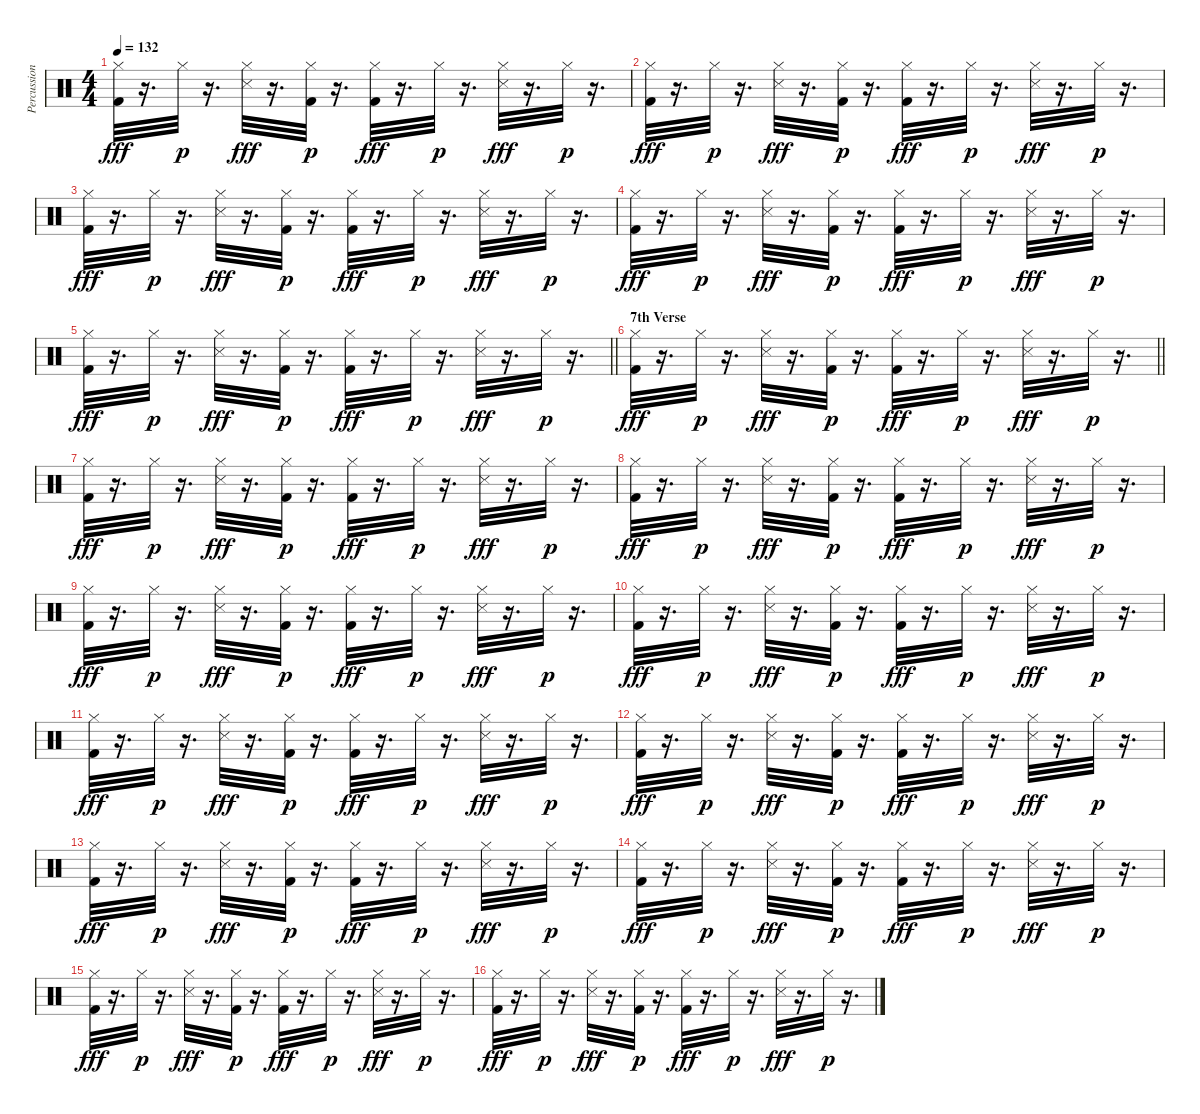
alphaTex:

\track ("Percussion" "Percussion") {instrument percussion}
\staff {score}
\articulation defaults
\ts (4 4)
\tempo 132
\clef neutral
\ks c
("Kick (hit) 2" "Hi-Hat (closed)").32{dy fff} r.16{d} "Hi-Hat (closed)".32{dy p} r.16{d} ("Hi-Hat (closed)" "Snare (side stick) 3").32{dy fff} r.16{d} ("Kick (hit) 2" "Hi-Hat (closed)").32{dy p} r.16{d} ("Kick (hit) 2" "Hi-Hat (closed)").32{dy fff} r.16{d} "Hi-Hat (closed)".32{dy p} r.16{d} ("Snare (side stick) 3" "Hi-Hat (closed)").32{dy fff} r.16{d} "Hi-Hat (closed)".32{dy p} r.16{d} |
("Kick (hit) 2" "Hi-Hat (closed)").32{dy fff} r.16{d} "Hi-Hat (closed)".32{dy p} r.16{d} ("Snare (side stick) 3" "Hi-Hat (closed)").32{dy fff} r.16{d} ("Kick (hit) 2" "Hi-Hat (closed)").32{dy p} r.16{d} ("Kick (hit) 2" "Hi-Hat (closed)").32{dy fff} r.16{d} "Hi-Hat (closed)".32{dy p} r.16{d} ("Hi-Hat (closed)" "Snare (side stick) 3").32{dy fff} r.16{d} "Hi-Hat (closed)".32{dy p} r.16{d} |
("Kick (hit) 2" "Hi-Hat (closed)").32{dy fff} r.16{d} "Hi-Hat (closed)".32{dy p} r.16{d} ("Hi-Hat (closed)" "Snare (side stick) 3").32{dy fff} r.16{d} ("Kick (hit) 2" "Hi-Hat (closed)").32{dy p} r.16{d} ("Kick (hit) 2" "Hi-Hat (closed)").32{dy fff} r.16{d} "Hi-Hat (closed)".32{dy p} r.16{d} ("Snare (side stick) 3" "Hi-Hat (closed)").32{dy fff} r.16{d} "Hi-Hat (closed)".32{dy p} r.16{d} |
("Kick (hit) 2" "Hi-Hat (closed)").32{dy fff} r.16{d} "Hi-Hat (closed)".32{dy p} r.16{d} ("Snare (side stick) 3" "Hi-Hat (closed)").32{dy fff} r.16{d} ("Kick (hit) 2" "Hi-Hat (closed)").32{dy p} r.16{d} ("Kick (hit) 2" "Hi-Hat (closed)").32{dy fff} r.16{d} "Hi-Hat (closed)".32{dy p} r.16{d} ("Hi-Hat (closed)" "Snare (side stick) 3").32{dy fff} r.16{d} "Hi-Hat (closed)".32{dy p} r.16{d} |
\barLineRight lightlight
("Kick (hit) 2" "Hi-Hat (closed)").32{dy fff} r.16{d} "Hi-Hat (closed)".32{dy p} r.16{d} ("Hi-Hat (closed)" "Snare (side stick) 3").32{dy fff} r.16{d} ("Kick (hit) 2" "Hi-Hat (closed)").32{dy p} r.16{d} ("Kick (hit) 2" "Hi-Hat (closed)").32{dy fff} r.16{d} "Hi-Hat (closed)".32{dy p} r.16{d} ("Snare (side stick) 3" "Hi-Hat (closed)").32{dy fff} r.16{d} "Hi-Hat (closed)".32{dy p} r.16{d} |
\section ("" "7th Verse")
\barLineRight lightlight
("Kick (hit) 2" "Hi-Hat (closed)").32{dy fff} r.16{d} "Hi-Hat (closed)".32{dy p} r.16{d} ("Snare (side stick) 3" "Hi-Hat (closed)").32{dy fff} r.16{d} ("Kick (hit) 2" "Hi-Hat (closed)").32{dy p} r.16{d} ("Kick (hit) 2" "Hi-Hat (closed)").32{dy fff} r.16{d} "Hi-Hat (closed)".32{dy p} r.16{d} ("Hi-Hat (closed)" "Snare (side stick) 3").32{dy fff} r.16{d} "Hi-Hat (closed)".32{dy p} r.16{d} |
("Kick (hit) 2" "Hi-Hat (closed)").32{dy fff} r.16{d} "Hi-Hat (closed)".32{dy p} r.16{d} ("Snare (side stick) 3" "Hi-Hat (closed)").32{dy fff} r.16{d} ("Kick (hit) 2" "Hi-Hat (closed)").32{dy p} r.16{d} ("Kick (hit) 2" "Hi-Hat (closed)").32{dy fff} r.16{d} "Hi-Hat (closed)".32{dy p} r.16{d} ("Snare (side stick) 3" "Hi-Hat (closed)").32{dy fff} r.16{d} "Hi-Hat (closed)".32{dy p} r.16{d} |
("Kick (hit) 2" "Hi-Hat (closed)").32{dy fff} r.16{d} "Hi-Hat (closed)".32{dy p} r.16{d} ("Snare (side stick) 3" "Hi-Hat (closed)").32{dy fff} r.16{d} ("Kick (hit) 2" "Hi-Hat (closed)").32{dy p} r.16{d} ("Kick (hit) 2" "Hi-Hat (closed)").32{dy fff} r.16{d} "Hi-Hat (closed)".32{dy p} r.16{d} ("Snare (side stick) 3" "Hi-Hat (closed)").32{dy fff} r.16{d} "Hi-Hat (closed)".32{dy p} r.16{d} |
("Kick (hit) 2" "Hi-Hat (closed)").32{dy fff} r.16{d} "Hi-Hat (closed)".32{dy p} r.16{d} ("Hi-Hat (closed)" "Snare (side stick) 3").32{dy fff} r.16{d} ("Kick (hit) 2" "Hi-Hat (closed)").32{dy p} r.16{d} ("Kick (hit) 2" "Hi-Hat (closed)").32{dy fff} r.16{d} "Hi-Hat (closed)".32{dy p} r.16{d} ("Snare (side stick) 3" "Hi-Hat (closed)").32{dy fff} r.16{d} "Hi-Hat (closed)".32{dy p} r.16{d} |
("Kick (hit) 2" "Hi-Hat (closed)").32{dy fff} r.16{d} "Hi-Hat (closed)".32{dy p} r.16{d} ("Hi-Hat (closed)" "Snare (side stick) 3").32{dy fff} r.16{d} ("Kick (hit) 2" "Hi-Hat (closed)").32{dy p} r.16{d} ("Kick (hit) 2" "Hi-Hat (closed)").32{dy fff} r.16{d} "Hi-Hat (closed)".32{dy p} r.16{d} ("Snare (side stick) 3" "Hi-Hat (closed)").32{dy fff} r.16{d} "Hi-Hat (closed)".32{dy p} r.16{d} |
("Kick (hit) 2" "Hi-Hat (closed)").32{dy fff} r.16{d} "Hi-Hat (closed)".32{dy p} r.16{d} ("Snare (side stick) 3" "Hi-Hat (closed)").32{dy fff} r.16{d} ("Kick (hit) 2" "Hi-Hat (closed)").32{dy p} r.16{d} ("Kick (hit) 2" "Hi-Hat (closed)").32{dy fff} r.16{d} "Hi-Hat (closed)".32{dy p} r.16{d} ("Snare (side stick) 3" "Hi-Hat (closed)").32{dy fff} r.16{d} "Hi-Hat (closed)".32{dy p} r.16{d} |
("Kick (hit) 2" "Hi-Hat (closed)").32{dy fff} r.16{d} "Hi-Hat (closed)".32{dy p} r.16{d} ("Snare (side stick) 3" "Hi-Hat (closed)").32{dy fff} r.16{d} ("Kick (hit) 2" "Hi-Hat (closed)").32{dy p} r.16{d} ("Kick (hit) 2" "Hi-Hat (closed)").32{dy fff} r.16{d} "Hi-Hat (closed)".32{dy p} r.16{d} ("Hi-Hat (closed)" "Snare (side stick) 3").32{dy fff} r.16{d} "Hi-Hat (closed)".32{dy p} r.16{d} |
("Kick (hit) 2" "Hi-Hat (closed)").32{dy fff} r.16{d} "Hi-Hat (closed)".32{dy p} r.16{d} ("Snare (side stick) 3" "Hi-Hat (closed)").32{dy fff} r.16{d} ("Kick (hit) 2" "Hi-Hat (closed)").32{dy p} r.16{d} ("Kick (hit) 2" "Hi-Hat (closed)").32{dy fff} r.16{d} "Hi-Hat (closed)".32{dy p} r.16{d} ("Hi-Hat (closed)" "Snare (side stick) 3").32{dy fff} r.16{d} "Hi-Hat (closed)".32{dy p} r.16{d} |
("Kick (hit) 2" "Hi-Hat (closed)").32{dy fff} r.16{d} "Hi-Hat (closed)".32{dy p} r.16{d} ("Snare (side stick) 3" "Hi-Hat (closed)").32{dy fff} r.16{d} ("Kick (hit) 2" "Hi-Hat (closed)").32{dy p} r.16{d} ("Kick (hit) 2" "Hi-Hat (closed)").32{dy fff} r.16{d} "Hi-Hat (closed)".32{dy p} r.16{d} ("Hi-Hat (closed)" "Snare (side stick) 3").32{dy fff} r.16{d} "Hi-Hat (closed)".32{dy p} r.16{d} |
("Kick (hit) 2" "Hi-Hat (closed)").32{dy fff} r.16{d} "Hi-Hat (closed)".32{dy p} r.16{d} ("Snare (side stick) 3" "Hi-Hat (closed)").32{dy fff} r.16{d} ("Kick (hit) 2" "Hi-Hat (closed)").32{dy p} r.16{d} ("Kick (hit) 2" "Hi-Hat (closed)").32{dy fff} r.16{d} "Hi-Hat (closed)".32{dy p} r.16{d} ("Snare (side stick) 3" "Hi-Hat (closed)").32{dy fff} r.16{d} "Hi-Hat (closed)".32{dy p} r.16{d} |
("Kick (hit) 2" "Hi-Hat (closed)").32{dy fff} r.16{d} "Hi-Hat (closed)".32{dy p} r.16{d} ("Snare (side stick) 3" "Hi-Hat (closed)").32{dy fff} r.16{d} ("Kick (hit) 2" "Hi-Hat (closed)").32{dy p} r.16{d} ("Kick (hit) 2" "Hi-Hat (closed)").32{dy fff} r.16{d} "Hi-Hat (closed)".32{dy p} r.16{d} ("Hi-Hat (closed)" "Snare (side stick) 3").32{dy fff} r.16{d} "Hi-Hat (closed)".32{dy p} r.16{d}
